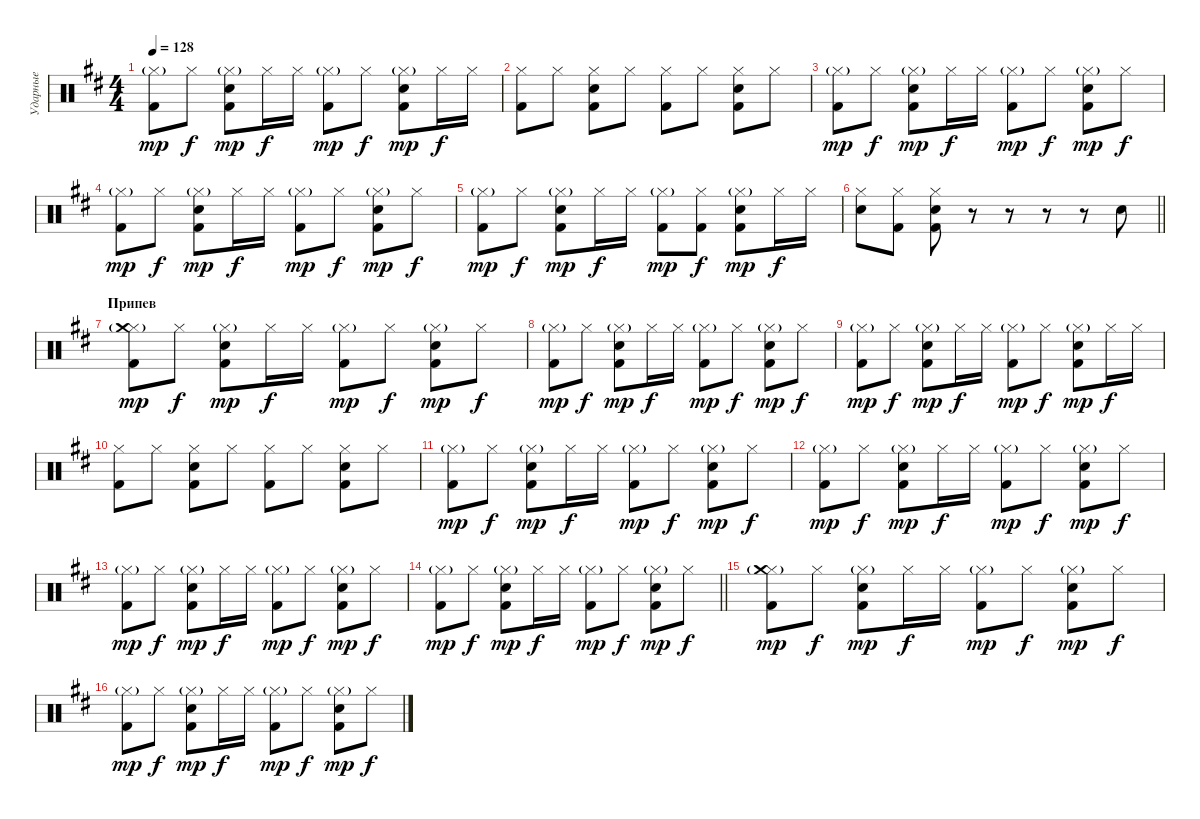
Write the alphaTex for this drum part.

\track ("Ударные" "Ударные") {instrument percussion}
\staff {score}
\articulation defaults
\ts (4 4)
\tempo 128
\clef neutral
\ks bminor
("Hi-Hat (closed)"{g} "Kick (hit) 2").8{dy mp} "Hi-Hat (closed)".8{dy f} ("Hi-Hat (closed)"{g} "Kick (hit) 2" "Snare (hit) 2").8{dy mp} "Hi-Hat (closed)".16{dy f} "Hi-Hat (closed)".16 ("Hi-Hat (closed)"{g} "Kick (hit) 2").8{dy mp} "Hi-Hat (closed)".8{dy f} ("Hi-Hat (closed)"{g} "Kick (hit) 2" "Snare (hit) 2").8{dy mp} "Hi-Hat (closed)".16{dy f} "Hi-Hat (closed)".16 |
("Hi-Hat (closed)" "Kick (hit) 2").8 "Hi-Hat (closed)".8 ("Hi-Hat (closed)" "Kick (hit) 2" "Snare (hit) 2").8 "Hi-Hat (closed)".8 ("Hi-Hat (closed)" "Kick (hit) 2").8 "Hi-Hat (closed)".8 ("Hi-Hat (closed)" "Kick (hit) 2" "Snare (hit) 2").8 "Hi-Hat (closed)".8 |
("Hi-Hat (closed)"{g} "Kick (hit) 2").8{dy mp} "Hi-Hat (closed)".8{dy f} ("Hi-Hat (closed)"{g} "Kick (hit) 2" "Snare (hit) 2").8{dy mp} "Hi-Hat (closed)".16{dy f} "Hi-Hat (closed)".16 ("Hi-Hat (closed)"{g} "Kick (hit) 2").8{dy mp} "Hi-Hat (closed)".8{dy f} ("Hi-Hat (closed)"{g} "Kick (hit) 2" "Snare (hit) 2").8{dy mp} "Hi-Hat (closed)".8{dy f} |
("Hi-Hat (closed)"{g} "Kick (hit) 2").8{dy mp} "Hi-Hat (closed)".8{dy f} ("Hi-Hat (closed)"{g} "Kick (hit) 2" "Snare (hit) 2").8{dy mp} "Hi-Hat (closed)".16{dy f} "Hi-Hat (closed)".16 ("Hi-Hat (closed)"{g} "Kick (hit) 2").8{dy mp} "Hi-Hat (closed)".8{dy f} ("Hi-Hat (closed)"{g} "Kick (hit) 2" "Snare (hit) 2").8{dy mp} "Hi-Hat (closed)".8{dy f} |
("Hi-Hat (closed)"{g} "Kick (hit) 2").8{dy mp} "Hi-Hat (closed)".8{dy f} ("Hi-Hat (closed)"{g} "Kick (hit) 2" "Snare (hit) 2").8{dy mp} "Hi-Hat (closed)".16{dy f} "Hi-Hat (closed)".16 ("Hi-Hat (closed)"{g} "Kick (hit) 2").8{dy mp} ("Hi-Hat (closed)" "Kick (hit) 2").8{dy f} ("Hi-Hat (closed)"{g} "Kick (hit) 2" "Snare (hit) 2").8{dy mp} "Hi-Hat (closed)".16{dy f} "Hi-Hat (closed)".16 |
\barLineRight lightlight
("Hi-Hat (closed)" "Snare (hit) 2").8 ("Hi-Hat (closed)" "Kick (hit) 2").8 ("Hi-Hat (closed)" "Kick (hit) 2" "Snare (hit) 2").8 r.8 r.8 r.8 r.8 "Snare (hit) 2".8 |
\section ("" "Припев")
("Hi-Hat (closed)"{g} "Crash medium (hit)" "Kick (hit) 2").8{dy mp} "Hi-Hat (closed)".8{dy f} ("Hi-Hat (closed)"{g} "Kick (hit) 2" "Snare (hit) 2").8{dy mp} "Hi-Hat (closed)".16{dy f} "Hi-Hat (closed)".16 ("Hi-Hat (closed)"{g} "Kick (hit) 2").8{dy mp} "Hi-Hat (closed)".8{dy f} ("Hi-Hat (closed)"{g} "Kick (hit) 2" "Snare (hit) 2").8{dy mp} "Hi-Hat (closed)".8{dy f} |
("Hi-Hat (closed)"{g} "Kick (hit) 2").8{dy mp} "Hi-Hat (closed)".8{dy f} ("Hi-Hat (closed)"{g} "Kick (hit) 2" "Snare (hit) 2").8{dy mp} "Hi-Hat (closed)".16{dy f} "Hi-Hat (closed)".16 ("Hi-Hat (closed)"{g} "Kick (hit) 2").8{dy mp} "Hi-Hat (closed)".8{dy f} ("Hi-Hat (closed)"{g} "Kick (hit) 2" "Snare (hit) 2").8{dy mp} "Hi-Hat (closed)".8{dy f} |
("Hi-Hat (closed)"{g} "Kick (hit) 2").8{dy mp} "Hi-Hat (closed)".8{dy f} ("Hi-Hat (closed)"{g} "Kick (hit) 2" "Snare (hit) 2").8{dy mp} "Hi-Hat (closed)".16{dy f} "Hi-Hat (closed)".16 ("Hi-Hat (closed)"{g} "Kick (hit) 2").8{dy mp} "Hi-Hat (closed)".8{dy f} ("Hi-Hat (closed)"{g} "Kick (hit) 2" "Snare (hit) 2").8{dy mp} "Hi-Hat (closed)".16{dy f} "Hi-Hat (closed)".16 |
("Hi-Hat (closed)" "Kick (hit) 2").8 "Hi-Hat (closed)".8 ("Hi-Hat (closed)" "Kick (hit) 2" "Snare (hit) 2").8 "Hi-Hat (closed)".8 ("Hi-Hat (closed)" "Kick (hit) 2").8 "Hi-Hat (closed)".8 ("Hi-Hat (closed)" "Kick (hit) 2" "Snare (hit) 2").8 "Hi-Hat (closed)".8 |
("Hi-Hat (closed)"{g} "Kick (hit) 2").8{dy mp} "Hi-Hat (closed)".8{dy f} ("Hi-Hat (closed)"{g} "Kick (hit) 2" "Snare (hit) 2").8{dy mp} "Hi-Hat (closed)".16{dy f} "Hi-Hat (closed)".16 ("Hi-Hat (closed)"{g} "Kick (hit) 2").8{dy mp} "Hi-Hat (closed)".8{dy f} ("Hi-Hat (closed)"{g} "Kick (hit) 2" "Snare (hit) 2").8{dy mp} "Hi-Hat (closed)".8{dy f} |
("Hi-Hat (closed)"{g} "Kick (hit) 2").8{dy mp} "Hi-Hat (closed)".8{dy f} ("Hi-Hat (closed)"{g} "Kick (hit) 2" "Snare (hit) 2").8{dy mp} "Hi-Hat (closed)".16{dy f} "Hi-Hat (closed)".16 ("Hi-Hat (closed)"{g} "Kick (hit) 2").8{dy mp} "Hi-Hat (closed)".8{dy f} ("Hi-Hat (closed)"{g} "Kick (hit) 2" "Snare (hit) 2").8{dy mp} "Hi-Hat (closed)".8{dy f} |
("Hi-Hat (closed)"{g} "Kick (hit) 2").8{dy mp} "Hi-Hat (closed)".8{dy f} ("Hi-Hat (closed)"{g} "Kick (hit) 2" "Snare (hit) 2").8{dy mp} "Hi-Hat (closed)".16{dy f} "Hi-Hat (closed)".16 ("Hi-Hat (closed)"{g} "Kick (hit) 2").8{dy mp} "Hi-Hat (closed)".8{dy f} ("Hi-Hat (closed)"{g} "Kick (hit) 2" "Snare (hit) 2").8{dy mp} "Hi-Hat (closed)".8{dy f} |
\barLineRight lightlight
("Hi-Hat (closed)"{g} "Kick (hit) 2").8{dy mp} "Hi-Hat (closed)".8{dy f} ("Hi-Hat (closed)"{g} "Kick (hit) 2" "Snare (hit) 2").8{dy mp} "Hi-Hat (closed)".16{dy f} "Hi-Hat (closed)".16 ("Hi-Hat (closed)"{g} "Kick (hit) 2").8{dy mp} "Hi-Hat (closed)".8{dy f} ("Hi-Hat (closed)"{g} "Kick (hit) 2" "Snare (hit) 2").8{dy mp} "Hi-Hat (closed)".8{dy f} |
("Hi-Hat (closed)"{g} "Crash medium (hit)" "Kick (hit) 2").8{dy mp} "Hi-Hat (closed)".8{dy f} ("Hi-Hat (closed)"{g} "Kick (hit) 2" "Snare (hit) 2").8{dy mp} "Hi-Hat (closed)".16{dy f} "Hi-Hat (closed)".16 ("Hi-Hat (closed)"{g} "Kick (hit) 2").8{dy mp} "Hi-Hat (closed)".8{dy f} ("Hi-Hat (closed)"{g} "Kick (hit) 2" "Snare (hit) 2").8{dy mp} "Hi-Hat (closed)".8{dy f} |
("Hi-Hat (closed)"{g} "Kick (hit) 2").8{dy mp} "Hi-Hat (closed)".8{dy f} ("Hi-Hat (closed)"{g} "Kick (hit) 2" "Snare (hit) 2").8{dy mp} "Hi-Hat (closed)".16{dy f} "Hi-Hat (closed)".16 ("Hi-Hat (closed)"{g} "Kick (hit) 2").8{dy mp} "Hi-Hat (closed)".8{dy f} ("Hi-Hat (closed)"{g} "Kick (hit) 2" "Snare (hit) 2").8{dy mp} "Hi-Hat (closed)".8{dy f}
